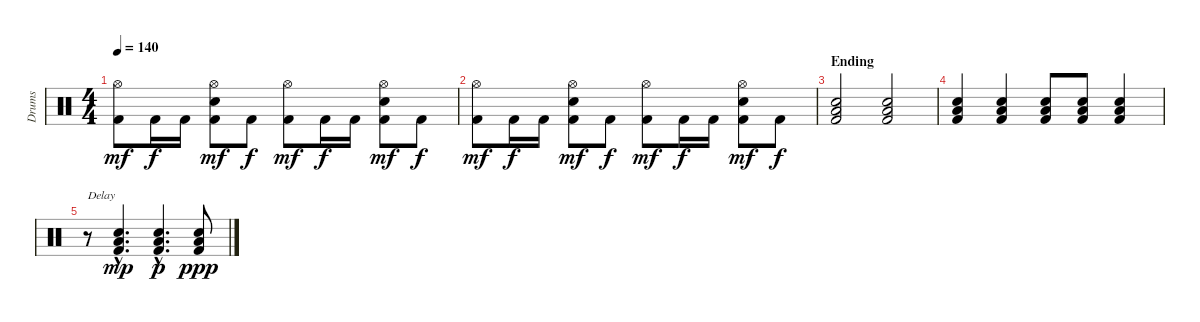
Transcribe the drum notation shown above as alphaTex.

\track ("Drums" "Drums") {instrument percussion}
\staff {score}
\articulation defaults
\ts (4 4)
\tempo 140
\clef neutral
\ks c
("Hi-Hat (open)" "Kick (hit) 2").8{dy mf} "Kick (hit) 2".16{dy f} "Kick (hit) 2".16 ("Hi-Hat (open)" "Snare (hit) 2" "Kick (hit) 2").8{dy mf} "Kick (hit) 2".8{dy f} ("Hi-Hat (open)" "Kick (hit) 2").8{dy mf} "Kick (hit) 2".16{dy f} "Kick (hit) 2".16 ("Hi-Hat (open)" "Snare (hit) 2" "Kick (hit) 2").8{dy mf} "Kick (hit) 2".8{dy f} |
("Hi-Hat (open)" "Kick (hit) 2").8{dy mf} "Kick (hit) 2".16{dy f} "Kick (hit) 2".16 ("Hi-Hat (open)" "Snare (hit) 2" "Kick (hit) 2").8{dy mf} "Kick (hit) 2".8{dy f} ("Hi-Hat (open)" "Kick (hit) 2").8{dy mf} "Kick (hit) 2".16{dy f} "Kick (hit) 2".16 ("Hi-Hat (open)" "Snare (hit) 2" "Kick (hit) 2").8{dy mf} "Kick (hit) 2".8{dy f} |
\section ("" "Ending")
("Low Floor Tom (hit)" "Snare (hit) 2" "Kick (hit) 2").2 ("Low Floor Tom (hit)" "Snare (hit) 2" "Kick (hit) 2").2 |
("Low Floor Tom (hit)" "Snare (hit) 2" "Kick (hit) 2").4 ("Low Floor Tom (hit)" "Snare (hit) 2" "Kick (hit) 2").4 ("Low Floor Tom (hit)" "Snare (hit) 2" "Kick (hit) 2").8 ("Low Floor Tom (hit)" "Snare (hit) 2" "Kick (hit) 2").8 ("Low Floor Tom (hit)" "Snare (hit) 2" "Kick (hit) 2").4 |
r.8{txt "Delay"} ("Low Floor Tom (hit)"{hac} "Snare (hit) 2"{hac} "Kick (hit) 2"{hac}).4{d dy mp} ("Low Floor Tom (hit)"{hac} "Snare (hit) 2"{hac} "Kick (hit) 2"{hac}).4{d dy p} ("Low Floor Tom (hit)" "Snare (hit) 2" "Kick (hit) 2").8{dy ppp}
